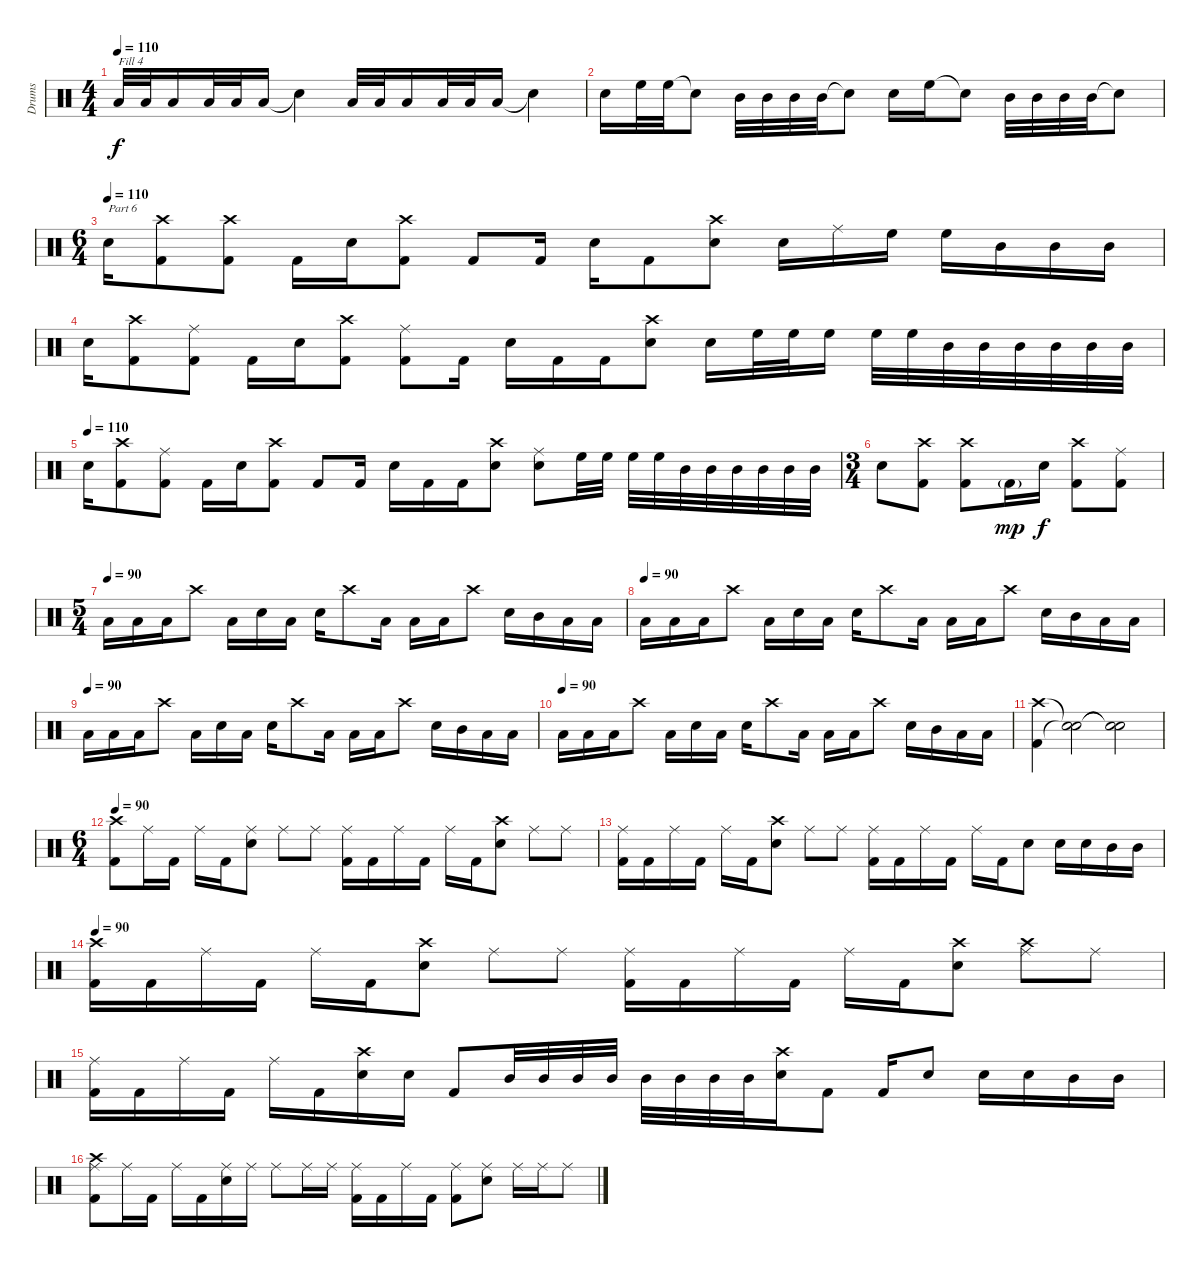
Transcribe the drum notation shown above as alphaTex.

\track ("Drums" "Drums") {instrument percussion}
\staff {score}
\articulation defaults
\ts (4 4)
\tempo 110
\clef neutral
\ks c "Low Floor Tom (hit)".32{txt "Fill 4" dy f} "Low Floor Tom (hit)".32 "Low Floor Tom (hit)".16 "Low Floor Tom (hit)".32 "Low Floor Tom (hit)".32 "Low Floor Tom (hit)".16 "Snare (hit)"{t}.4 "Low Floor Tom (hit)".32 "Low Floor Tom (hit)".32 "Low Floor Tom (hit)".16 "Low Floor Tom (hit)".32 "Low Floor Tom (hit)".32 "Low Floor Tom (hit)".16 "Snare (hit)"{t}.4
|
"Snare (hit) 2".16 "High Floor Tom (hit)".32 "High Floor Tom (hit)".32 "Snare (hit)"{t}.8 "Mid Tom (hit)".32 "Mid Tom (hit)".32 "Mid Tom (hit)".32 "Mid Tom (hit)".32 "Snare (hit)"{t}.8 "Snare (hit) 2".16 "High Floor Tom (hit)".16 "Snare (hit)"{t}.8 "Mid Tom (hit)".32 "Mid Tom (hit)".32 "Mid Tom (hit)".32 "Mid Tom (hit)".32 "Snare (hit)"{t}.8 |
\ts (6 4)
\tempo (110)
"Snare (hit) 2".16{txt "Part 6"} ("Crash high (hit)" "Kick (hit) 2").8 ("Crash high (hit)" "Kick (hit) 2").8 "Kick (hit) 2".16 "Snare (hit) 2".16 ("Crash high (hit)" "Kick (hit) 2").8 "Kick (hit) 2".8 "Kick (hit) 2".16 "Snare (hit) 2".16 "Kick (hit) 2".8 ("Crash high (hit)" "Snare (hit) 2").8 "Snare (hit) 2".16 "Ride (middle)".16 "High Floor Tom (hit)".16 "High Floor Tom (hit)".16 "Mid Tom (hit)".16 "Mid Tom (hit)".16 "Mid Tom (hit)".16 |
"Snare (hit) 2".16 ("Crash high (hit)" "Kick (hit) 2").8 ("Ride (middle)" "Kick (hit) 2").8 "Kick (hit) 2".16 "Snare (hit) 2".16 ("Crash high (hit)" "Kick (hit) 2").8 ("Ride (middle)" "Kick (hit) 2").8 "Kick (hit) 2".16 "Snare (hit) 2".16 "Kick (hit) 2".16 "Kick (hit) 2".16 ("Crash high (hit)" "Snare (hit) 2").8 "Snare (hit) 2".16 "High Floor Tom (hit)".32 "High Floor Tom (hit)".32 "High Floor Tom (hit)".16 "High Floor Tom (hit)".32 "High Floor Tom (hit)".32 "Mid Tom (hit)".32 "Mid Tom (hit)".32 "Mid Tom (hit)".32 "Mid Tom (hit)".32 "Mid Tom (hit)".32 "Mid Tom (hit)".32 |
\tempo (110)
"Snare (hit) 2".16 ("Crash high (hit)" "Kick (hit) 2").8 ("Ride (middle)" "Kick (hit) 2").8 "Kick (hit) 2".16 "Snare (hit) 2".16 ("Crash high (hit)" "Kick (hit) 2").8 "Kick (hit) 2".8 "Kick (hit) 2".16 "Snare (hit) 2".16 "Kick (hit) 2".16 "Kick (hit) 2".16 ("Crash high (hit)" "Snare (hit) 2").8 ("Ride (middle)" "Snare (hit) 2").8 "High Floor Tom (hit)".32 "High Floor Tom (hit)".32 "High Floor Tom (hit)".32 "High Floor Tom (hit)".32 "Mid Tom (hit)".32 "Mid Tom (hit)".32 "Mid Tom (hit)".32 "Mid Tom (hit)".32 "Mid Tom (hit)".32 "Mid Tom (hit)".32 |
\ts (3 4)
"Snare (hit) 2".8 ("Crash high (hit)" "Kick (hit) 2").8 ("Crash high (hit)" "Kick (hit) 2").8 "Kick (hit) 2"{g}.16{dy mp} "Snare (hit) 2".16{dy f} ("Crash high (hit)" "Kick (hit) 2").8 ("Ride (middle)" "Kick (hit) 2").8 |
\ts (5 4)
\tempo (90)
"Low Floor Tom (hit)".16 "Low Floor Tom (hit)".16 "Low Floor Tom (hit)".16 "Crash high (hit)".8 "Low Floor Tom (hit)".16 "Snare (hit) 2".16 "Low Floor Tom (hit)".16 "Snare (hit) 2".16 "Crash high (hit)".8 "Low Floor Tom (hit)".16 "Low Floor Tom (hit)".16 "Low Floor Tom (hit)".16 "Crash high (hit)".8 "Snare (hit) 2".16 "Mid Tom (hit)".16 "Low Floor Tom (hit)".16 "Low Floor Tom (hit)".16 |
\tempo (90)
"Low Floor Tom (hit)".16 "Low Floor Tom (hit)".16 "Low Floor Tom (hit)".16 "Crash high (hit)".8 "Low Floor Tom (hit)".16 "Snare (hit) 2".16 "Low Floor Tom (hit)".16 "Snare (hit) 2".16 "Crash high (hit)".8 "Low Floor Tom (hit)".16 "Low Floor Tom (hit)".16 "Low Floor Tom (hit)".16 "Crash high (hit)".8 "Snare (hit) 2".16 "Mid Tom (hit)".16 "Low Floor Tom (hit)".16 "Low Floor Tom (hit)".16 |
\tempo (90)
"Low Floor Tom (hit)".16 "Low Floor Tom (hit)".16 "Low Floor Tom (hit)".16 "Crash high (hit)".8 "Low Floor Tom (hit)".16 "Snare (hit) 2".16 "Low Floor Tom (hit)".16 "Snare (hit) 2".16 "Crash high (hit)".8 "Low Floor Tom (hit)".16 "Low Floor Tom (hit)".16 "Low Floor Tom (hit)".16 "Crash high (hit)".8 "Snare (hit) 2".16 "Mid Tom (hit)".16 "Low Floor Tom (hit)".16 "Low Floor Tom (hit)".16 |
\tempo (90)
"Low Floor Tom (hit)".16 "Low Floor Tom (hit)".16 "Low Floor Tom (hit)".16 "Crash high (hit)".8 "Low Floor Tom (hit)".16 "Snare (hit) 2".16 "Low Floor Tom (hit)".16 "Snare (hit) 2".16 "Crash high (hit)".8 "Low Floor Tom (hit)".16 "Low Floor Tom (hit)".16 "Low Floor Tom (hit)".16 "Crash high (hit)".8 "Snare (hit) 2".16 "Mid Tom (hit)".16 "Low Floor Tom (hit)".16 "Low Floor Tom (hit)".16 |
("Crash high (hit)" "Kick (hit) 2").4 ("Snare (hit)"{t} "Snare (hit)"{t}).2 ("Snare (hit)"{t} "Snare (hit)"{t}).2 |
\ts (6 4)
\tempo 90
("Crash high (hit)" "Kick (hit) 2").8 "Ride (middle)".16 "Kick (hit) 2".16 "Ride (middle)".16 "Kick (hit) 2".16 ("Ride (middle)" "Snare (hit) 2").8 "Ride (middle)".8 "Ride (middle)".8 ("Ride (middle)" "Kick (hit) 2").16 "Kick (hit) 2".16 "Ride (middle)".16 "Kick (hit) 2".16 "Ride (middle)".16 "Kick (hit) 2".16 ("Crash high (hit)" "Snare (hit) 2").8 "Ride (middle)".8 "Ride (middle)".8 |
("Ride (middle)" "Kick (hit) 2").16 "Kick (hit) 2".16 "Ride (middle)".16 "Kick (hit) 2".16 "Ride (middle)".16 "Kick (hit) 2".16 ("Crash high (hit)" "Snare (hit) 2").8 "Ride (middle)".8 "Ride (middle)".8 ("Ride (middle)" "Kick (hit) 2").16 "Kick (hit) 2".16 "Ride (middle)".16 "Kick (hit) 2".16 "Ride (middle)".16 "Kick (hit) 2".16 "Snare (hit) 2".8 "Snare (hit) 2".16 "Snare (hit) 2".16 "Mid Tom (hit)".16 "Mid Tom (hit)".16 |
\tempo 90
("Crash high (hit)" "Kick (hit) 2").16 "Kick (hit) 2".16 "Ride (middle)".16 "Kick (hit) 2".16 "Ride (middle)".16 "Kick (hit) 2".16 ("Crash high (hit)" "Snare (hit) 2").8 "Ride (middle)".8 "Ride (middle)".8 ("Ride (middle)" "Kick (hit) 2").16 "Kick (hit) 2".16 "Ride (middle)".16 "Kick (hit) 2".16 "Ride (middle)".16 "Kick (hit) 2".16 ("Crash high (hit)" "Snare (hit) 2").8 ("Crash high (hit)" "Ride (middle)").8 "Ride (middle)".8 |
("Ride (middle)" "Kick (hit) 2").16 "Kick (hit) 2".16 "Ride (middle)".16 "Kick (hit) 2".16 "Ride (middle)".16 "Kick (hit) 2".16 ("Crash high (hit)" "Snare (hit) 2").16 "Snare (hit) 2".16 "Kick (hit) 2".8 "Mid Tom (hit)".32 "Mid Tom (hit)".32 "Mid Tom (hit)".32 "Mid Tom (hit)".32 "Mid Tom (hit)".32 "Mid Tom (hit)".32 "Mid Tom (hit)".32 "Mid Tom (hit)".32 ("Crash high (hit)" "Snare (hit) 2").16 "Kick (hit) 2".8 "Kick (hit) 2".16 "Snare (hit) 2".8 "Snare (hit) 2".16 "Snare (hit) 2".16 "Mid Tom (hit)".16 "Mid Tom (hit)".16 |
("Crash high (hit)" "Ride (middle)" "Kick (hit) 2").8 "Ride (middle)".16 "Kick (hit) 2".16 "Ride (middle)".16 "Kick (hit) 2".16 ("Ride (middle)" "Snare (hit) 2").16 "Ride (middle)".16 "Ride (middle)".8 "Ride (middle)".16 "Ride (middle)".16 ("Ride (middle)" "Kick (hit) 2").16 "Kick (hit) 2".16 "Ride (middle)".16 "Kick (hit) 2".16 ("Ride (middle)" "Kick (hit) 2").8 ("Ride (middle)" "Snare (hit) 2").8 "Ride (middle)".16 "Ride (middle)".16 "Ride (middle)".8
